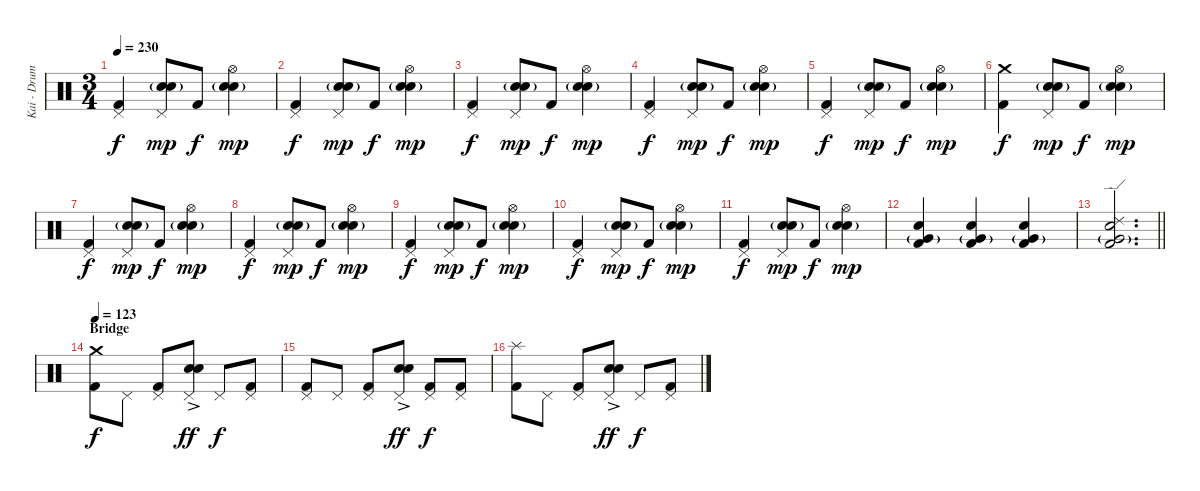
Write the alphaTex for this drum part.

\track ("Kai - Drums" "Kai - Drum") {instrument percussion}
\staff {score}
\articulation defaults
\ts (3 4)
\tempo 230
\clef neutral
\ks c
("Pedal Hi-Hat (hit)" "Kick (hit) 2").4{dy f} ("Pedal Hi-Hat (hit)" "Electric Snare (hit)" "Snare (hit) 2"{g}).8{dy mp} "Kick (hit) 2".8{dy f} ("Hi-Hat (open)" "Electric Snare (hit)" "Snare (hit) 2"{g}).4{dy mp} |
("Pedal Hi-Hat (hit)" "Kick (hit) 2").4{dy f} ("Pedal Hi-Hat (hit)" "Electric Snare (hit)" "Snare (hit) 2"{g}).8{dy mp} "Kick (hit) 2".8{dy f} ("Hi-Hat (open)" "Electric Snare (hit)" "Snare (hit) 2"{g}).4{dy mp} |
("Pedal Hi-Hat (hit)" "Kick (hit) 2").4{dy f} ("Pedal Hi-Hat (hit)" "Electric Snare (hit)" "Snare (hit) 2"{g}).8{dy mp} "Kick (hit) 2".8{dy f} ("Hi-Hat (open)" "Electric Snare (hit)" "Snare (hit) 2"{g}).4{dy mp} |
("Pedal Hi-Hat (hit)" "Kick (hit) 2").4{dy f} ("Pedal Hi-Hat (hit)" "Electric Snare (hit)" "Snare (hit) 2"{g}).8{dy mp} "Kick (hit) 2".8{dy f} ("Hi-Hat (open)" "Electric Snare (hit)" "Snare (hit) 2"{g}).4{dy mp} |
("Pedal Hi-Hat (hit)" "Kick (hit) 2").4{dy f} ("Pedal Hi-Hat (hit)" "Electric Snare (hit)" "Snare (hit) 2"{g}).8{dy mp} "Kick (hit) 2".8{dy f} ("Hi-Hat (open)" "Electric Snare (hit)" "Snare (hit) 2"{g}).4{dy mp} |
("Crash medium (hit)" "Kick (hit) 2").4{dy f} ("Pedal Hi-Hat (hit)" "Electric Snare (hit)" "Snare (hit) 2"{g}).8{dy mp} "Kick (hit) 2".8{dy f} ("Hi-Hat (open)" "Electric Snare (hit)" "Snare (hit) 2"{g}).4{dy mp} |
("Pedal Hi-Hat (hit)" "Kick (hit) 2").4{dy f} ("Pedal Hi-Hat (hit)" "Electric Snare (hit)" "Snare (hit) 2"{g}).8{dy mp} "Kick (hit) 2".8{dy f} ("Hi-Hat (open)" "Electric Snare (hit)" "Snare (hit) 2"{g}).4{dy mp} |
("Pedal Hi-Hat (hit)" "Kick (hit) 2").4{dy f} ("Pedal Hi-Hat (hit)" "Electric Snare (hit)" "Snare (hit) 2"{g}).8{dy mp} "Kick (hit) 2".8{dy f} ("Hi-Hat (open)" "Electric Snare (hit)" "Snare (hit) 2"{g}).4{dy mp} |
("Pedal Hi-Hat (hit)" "Kick (hit) 2").4{dy f} ("Pedal Hi-Hat (hit)" "Electric Snare (hit)" "Snare (hit) 2"{g}).8{dy mp} "Kick (hit) 2".8{dy f} ("Hi-Hat (open)" "Electric Snare (hit)" "Snare (hit) 2"{g}).4{dy mp} |
("Pedal Hi-Hat (hit)" "Kick (hit) 2").4{dy f} ("Pedal Hi-Hat (hit)" "Electric Snare (hit)" "Snare (hit) 2"{g}).8{dy mp} "Kick (hit) 2".8{dy f} ("Hi-Hat (open)" "Electric Snare (hit)" "Snare (hit) 2"{g}).4{dy mp} |
("Pedal Hi-Hat (hit)" "Kick (hit) 2").4{dy f} ("Pedal Hi-Hat (hit)" "Electric Snare (hit)" "Snare (hit) 2"{g}).8{dy mp} "Kick (hit) 2".8{dy f} ("Hi-Hat (open)" "Electric Snare (hit)" "Snare (hit) 2"{g}).4{dy mp} |
("Electric Snare (hit)" "Very Low Tom (hit)"{g} "Kick (hit) 2").4 ("Electric Snare (hit)" "Very Low Tom (hit)"{g} "Kick (hit) 2").4 ("Electric Snare (hit)" "Very Low Tom (hit)"{g} "Kick (hit) 2").4 |
\barLineRight lightlight
("Ride (edge) 2" "Electric Snare (hit)" "Very Low Tom (hit)"{g} "Kick (hit) 2").2{d} |
\section ("" "Bridge")
\tempo 123
("Crash medium (hit)" "Kick (hit) 2").8{dy f} "Pedal Hi-Hat (hit)".8 ("Pedal Hi-Hat (hit)" "Kick (hit) 2").8 ("Pedal Hi-Hat (hit)" "Electric Snare (hit)"{ac} "Snare (hit) 2").8{dy ff} "Pedal Hi-Hat (hit)".8{dy f} ("Pedal Hi-Hat (hit)" "Kick (hit) 2").8 |
("Pedal Hi-Hat (hit)" "Kick (hit) 2").8 "Pedal Hi-Hat (hit)".8 ("Pedal Hi-Hat (hit)" "Kick (hit) 2").8 ("Pedal Hi-Hat (hit)" "Electric Snare (hit)"{ac} "Snare (hit) 2").8{dy ff} ("Pedal Hi-Hat (hit)" "Kick (hit) 2").8{dy f} ("Pedal Hi-Hat (hit)" "Kick (hit) 2").8 |
("Splash (hit)" "Kick (hit) 2").8 "Pedal Hi-Hat (hit)".8 ("Pedal Hi-Hat (hit)" "Kick (hit) 2").8 ("Pedal Hi-Hat (hit)" "Electric Snare (hit)"{ac} "Snare (hit) 2").8{dy ff} "Pedal Hi-Hat (hit)".8{dy f} ("Pedal Hi-Hat (hit)" "Kick (hit) 2").8
